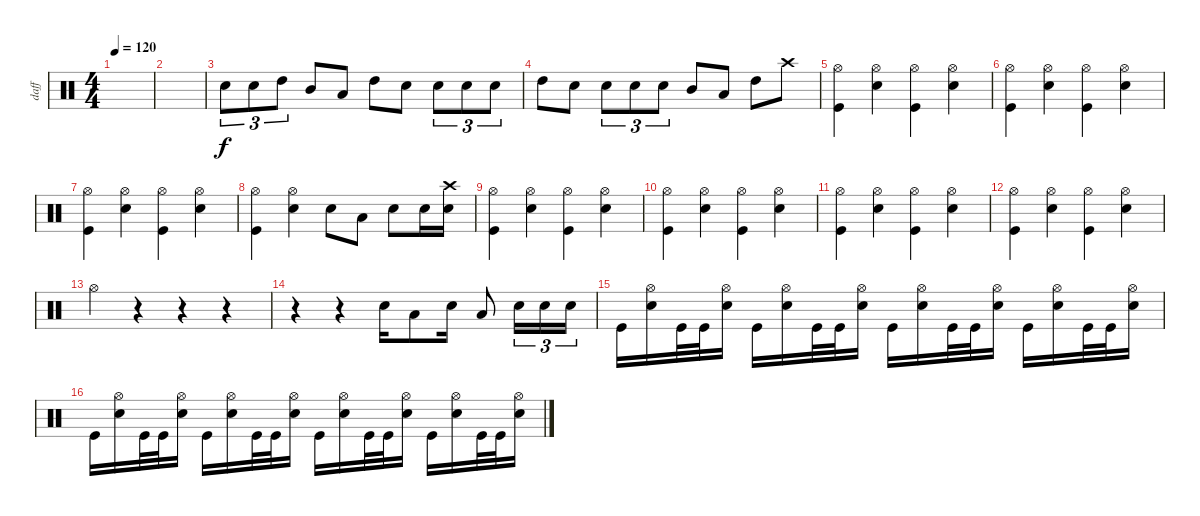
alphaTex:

\track ("daff" "daff") {instrument percussion}
\staff {score}
\articulation defaults
\ts (4 4)
\tempo 120
\clef neutral
\ks c
|
|
"Electric Snare (hit)".8{tu (3 2)} "Electric Snare (hit)".8{tu (3 2)} "High Tom (hit)".8{tu (3 2)} "Mid Tom (hit)".8 "Low Tom (hit)".8 "High Tom (hit)".8 "Electric Snare (hit)".8 "Electric Snare (hit)".8{tu (3 2)} "Electric Snare (hit)".8{tu (3 2)} "Electric Snare (hit)".8{tu (3 2)} |
"High Tom (hit)".8 "Electric Snare (hit)".8 "Electric Snare (hit)".8{tu (3 2)} "Electric Snare (hit)".8{tu (3 2)} "Electric Snare (hit)".8{tu (3 2)} "Mid Tom (hit)".8 "Low Tom (hit)".8 "High Tom (hit)".8 "Crash high (hit)".8 |
("Hi-Hat (open)" "Kick (hit)").4 ("Hi-Hat (open)" "Electric Snare (hit)").4 ("Hi-Hat (open)" "Kick (hit)").4 ("Hi-Hat (open)" "Electric Snare (hit)").4 |
("Hi-Hat (open)" "Kick (hit)").4 ("Hi-Hat (open)" "Electric Snare (hit)").4 ("Hi-Hat (open)" "Kick (hit)").4 ("Hi-Hat (open)" "Electric Snare (hit)").4 |
("Hi-Hat (open)" "Kick (hit)").4 ("Hi-Hat (open)" "Electric Snare (hit)").4 ("Hi-Hat (open)" "Kick (hit)").4 ("Hi-Hat (open)" "Electric Snare (hit)").4 |
("Hi-Hat (open)" "Kick (hit)").4 ("Hi-Hat (open)" "Electric Snare (hit)").4 "Electric Snare (hit)".8 "Low Tom (hit)".8 "Electric Snare (hit)".8 "Electric Snare (hit)".16 ("Crash high (hit)" "Electric Snare (hit)").16 |
("Hi-Hat (open)" "Kick (hit)").4 ("Hi-Hat (open)" "Electric Snare (hit)").4 ("Hi-Hat (open)" "Kick (hit)").4 ("Hi-Hat (open)" "Electric Snare (hit)").4 |
("Hi-Hat (open)" "Kick (hit)").4 ("Hi-Hat (open)" "Electric Snare (hit)").4 ("Hi-Hat (open)" "Kick (hit)").4 ("Hi-Hat (open)" "Electric Snare (hit)").4 |
("Hi-Hat (open)" "Kick (hit)").4 ("Hi-Hat (open)" "Electric Snare (hit)").4 ("Hi-Hat (open)" "Kick (hit)").4 ("Hi-Hat (open)" "Electric Snare (hit)").4 |
("Hi-Hat (open)" "Kick (hit)").4 ("Hi-Hat (open)" "Electric Snare (hit)").4 ("Hi-Hat (open)" "Kick (hit)").4 ("Hi-Hat (open)" "Electric Snare (hit)").4 |
"Hi-Hat (open)".4 r.4 r.4 r.4 |
r.4 r.4 "Electric Snare (hit)".16 "Low Tom (hit)".8 "Electric Snare (hit)".16 "Low Tom (hit)".8 "Electric Snare (hit)".16{tu (3 2)} "Electric Snare (hit)".16{tu (3 2)} "Electric Snare (hit)".16{tu (3 2)} |
"Kick (hit)".16 ("Hi-Hat (open)" "Electric Snare (hit)").16 "Kick (hit)".32 "Kick (hit)".32 ("Hi-Hat (open)" "Electric Snare (hit)").16 "Kick (hit)".16 ("Hi-Hat (open)" "Electric Snare (hit)").16 "Kick (hit)".32 "Kick (hit)".32 ("Hi-Hat (open)" "Electric Snare (hit)").16 "Kick (hit)".16 ("Hi-Hat (open)" "Electric Snare (hit)").16 "Kick (hit)".32 "Kick (hit)".32 ("Hi-Hat (open)" "Electric Snare (hit)").16 "Kick (hit)".16 ("Hi-Hat (open)" "Electric Snare (hit)").16 "Kick (hit)".32 "Kick (hit)".32 ("Hi-Hat (open)" "Electric Snare (hit)").16 |
"Kick (hit)".16 ("Hi-Hat (open)" "Electric Snare (hit)").16 "Kick (hit)".32 "Kick (hit)".32 ("Hi-Hat (open)" "Electric Snare (hit)").16 "Kick (hit)".16 ("Hi-Hat (open)" "Electric Snare (hit)").16 "Kick (hit)".32 "Kick (hit)".32 ("Hi-Hat (open)" "Electric Snare (hit)").16 "Kick (hit)".16 ("Hi-Hat (open)" "Electric Snare (hit)").16 "Kick (hit)".32 "Kick (hit)".32 ("Hi-Hat (open)" "Electric Snare (hit)").16 "Kick (hit)".16 ("Hi-Hat (open)" "Electric Snare (hit)").16 "Kick (hit)".32 "Kick (hit)".32 ("Hi-Hat (open)" "Electric Snare (hit)").16
